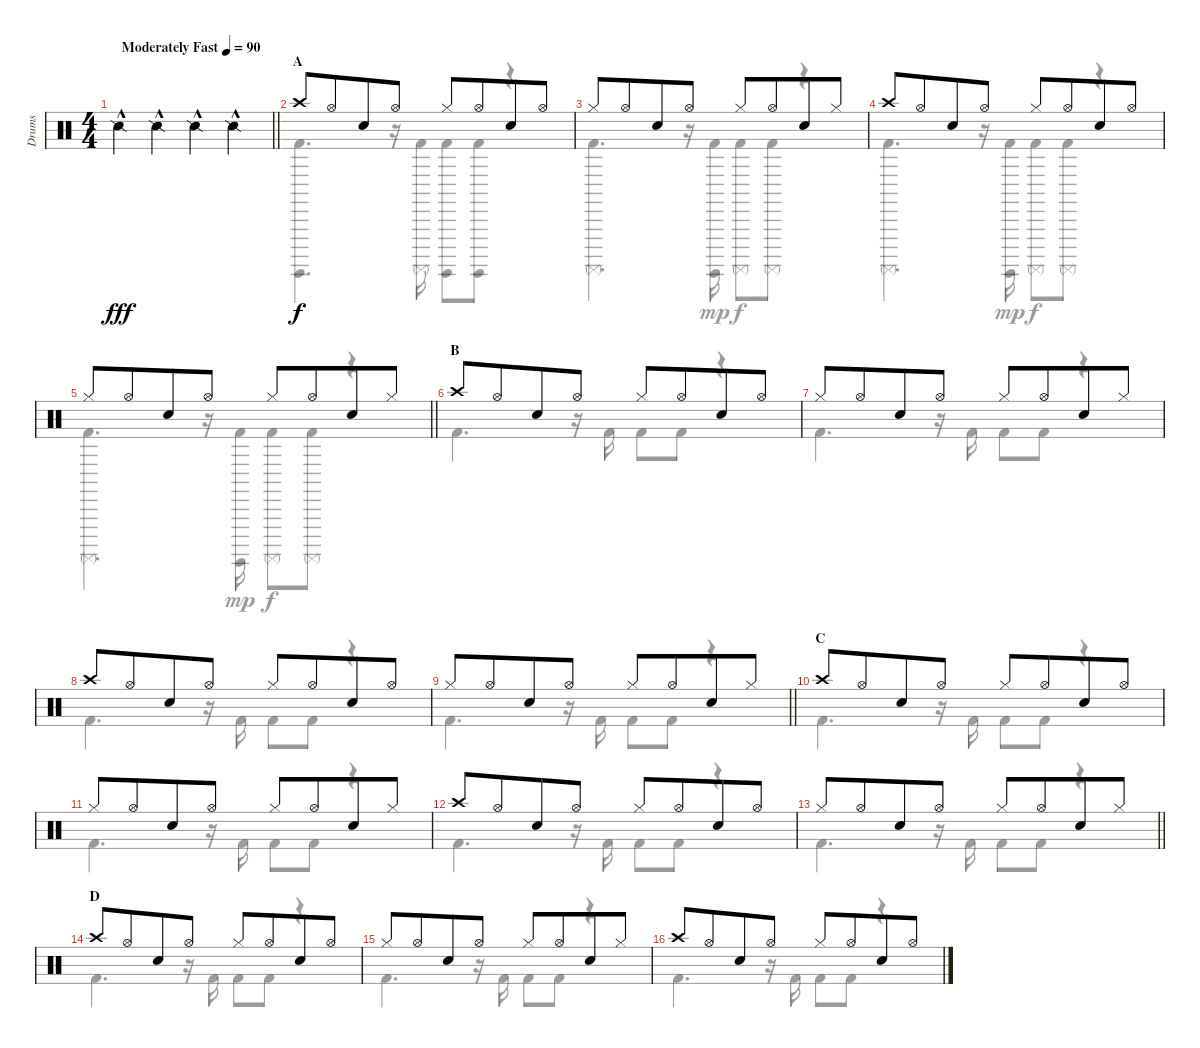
\track ("Drums" "Drums") {instrument percussion}
\staff {score}
\articulation defaults
\voice
\ts (4 4)
\tempo (90 "Moderately Fast")
\clef neutral
\barLineRight lightlight
\ks c "Snare (side stick) 2"{hac}.4{dy fff} "Snare (side stick) 2"{hac}.4 "Snare (side stick) 2"{hac}.4 "Snare (side stick) 2"{hac}.4
|
\section ("" "A")
"Crash high (hit)".8{dy f} "Hi-Hat (open)".8{beam merge} "Snare (hit) 2".8 "Hi-Hat (open)".8 "Hi-Hat (closed)".8 "Hi-Hat (open)".8{beam merge} "Snare (hit) 2".8 "Hi-Hat (open)".8 |
"Hi-Hat (closed)".8 "Hi-Hat (open)".8{beam merge} "Snare (hit) 2".8 "Hi-Hat (open)".8 "Hi-Hat (closed)".8 "Hi-Hat (open)".8{beam merge} "Snare (hit) 2".8 "Hi-Hat (closed)".8 |
"Crash high (hit)".8 "Hi-Hat (open)".8{beam merge} "Snare (hit) 2".8 "Hi-Hat (open)".8 "Hi-Hat (closed)".8 "Hi-Hat (open)".8{beam merge} "Snare (hit) 2".8 "Hi-Hat (open)".8 |
\barLineRight lightlight "Hi-Hat (closed)".8 "Hi-Hat (open)".8{beam merge} "Snare (hit) 2".8 "Hi-Hat (open)".8 "Hi-Hat (closed)".8 "Hi-Hat (open)".8{beam merge} "Snare (hit) 2".8 "Hi-Hat (closed)".8
|
\section ("" "B")
"Crash high (hit)".8 "Hi-Hat (open)".8{beam merge} "Snare (hit) 2".8 "Hi-Hat (open)".8 "Hi-Hat (closed)".8 "Hi-Hat (open)".8{beam merge} "Snare (hit) 2".8 "Hi-Hat (open)".8 |
"Hi-Hat (closed)".8 "Hi-Hat (open)".8{beam merge} "Snare (hit) 2".8 "Hi-Hat (open)".8 "Hi-Hat (closed)".8 "Hi-Hat (open)".8{beam merge} "Snare (hit) 2".8 "Hi-Hat (closed)".8 |
"Crash high (hit)".8 "Hi-Hat (open)".8{beam merge} "Snare (hit) 2".8 "Hi-Hat (open)".8 "Hi-Hat (closed)".8 "Hi-Hat (open)".8{beam merge} "Snare (hit) 2".8 "Hi-Hat (open)".8 |
\barLineRight lightlight "Hi-Hat (closed)".8 "Hi-Hat (open)".8{beam merge} "Snare (hit) 2".8 "Hi-Hat (open)".8 "Hi-Hat (closed)".8 "Hi-Hat (open)".8{beam merge} "Snare (hit) 2".8 "Hi-Hat (closed)".8
|
\section ("" "C")
"Crash high (hit)".8 "Hi-Hat (open)".8{beam merge} "Snare (hit) 2".8 "Hi-Hat (open)".8 "Hi-Hat (closed)".8 "Hi-Hat (open)".8{beam merge} "Snare (hit) 2".8 "Hi-Hat (open)".8 |
"Hi-Hat (closed)".8 "Hi-Hat (open)".8{beam merge} "Snare (hit) 2".8 "Hi-Hat (open)".8 "Hi-Hat (closed)".8 "Hi-Hat (open)".8{beam merge} "Snare (hit) 2".8 "Hi-Hat (closed)".8 |
"Crash high (hit)".8 "Hi-Hat (open)".8{beam merge} "Snare (hit) 2".8 "Hi-Hat (open)".8 "Hi-Hat (closed)".8 "Hi-Hat (open)".8{beam merge} "Snare (hit) 2".8 "Hi-Hat (open)".8 |
\barLineRight lightlight "Hi-Hat (closed)".8 "Hi-Hat (open)".8{beam merge} "Snare (hit) 2".8 "Hi-Hat (open)".8 "Hi-Hat (closed)".8 "Hi-Hat (open)".8{beam merge} "Snare (hit) 2".8 "Hi-Hat (closed)".8
|
\section ("" "D")
"Crash high (hit)".8 "Hi-Hat (open)".8{beam merge} "Snare (hit) 2".8 "Hi-Hat (open)".8 "Hi-Hat (closed)".8 "Hi-Hat (open)".8{beam merge} "Snare (hit) 2".8 "Hi-Hat (open)".8 |
"Hi-Hat (closed)".8 "Hi-Hat (open)".8{beam merge} "Snare (hit) 2".8 "Hi-Hat (open)".8 "Hi-Hat (closed)".8 "Hi-Hat (open)".8{beam merge} "Snare (hit) 2".8 "Hi-Hat (closed)".8 |
"Crash high (hit)".8 "Hi-Hat (open)".8{beam merge} "Snare (hit) 2".8 "Hi-Hat (open)".8 "Hi-Hat (closed)".8 "Hi-Hat (open)".8{beam merge} "Snare (hit) 2".8 "Hi-Hat (open)".8
\voice
\clef neutral
\ottava regular
\simile none
\barLineRight lightlight
\ks c
|
("Kick (hit) 2" "Surdo (hit)").4{d} r.16 ("Kick (hit) 2" "Surdo (mute)").16 ("Kick (hit) 2" "Surdo (hit)").8 ("Kick (hit) 2" "Surdo (hit)").8 r.4 |
("Kick (hit) 2" "Surdo (mute)").4{d} r.16 ("Kick (hit) 2" "Surdo (hit)").16{dy mp} ("Kick (hit) 2" "Surdo (mute)").8{dy f} ("Kick (hit) 2" "Surdo (mute)").8 r.4 |
("Kick (hit) 2" "Surdo (mute)").4{d} r.16 ("Kick (hit) 2" "Surdo (hit)").16{dy mp} ("Kick (hit) 2" "Surdo (mute)").8{dy f} ("Kick (hit) 2" "Surdo (mute)").8 r.4 |
\barLineRight lightlight
("Kick (hit) 2" "Surdo (mute)").4{d} r.16 ("Kick (hit) 2" "Surdo (hit)").16{dy mp} ("Kick (hit) 2" "Surdo (mute)").8{dy f} ("Kick (hit) 2" "Surdo (mute)").8 r.4 |
"Kick (hit) 2".4{d} r.16 "Kick (hit) 2".16 "Kick (hit) 2".8 "Kick (hit) 2".8 r.4 |
"Kick (hit) 2".4{d} r.16 "Kick (hit) 2".16 "Kick (hit) 2".8 "Kick (hit) 2".8 r.4 |
"Kick (hit) 2".4{d} r.16 "Kick (hit) 2".16 "Kick (hit) 2".8 "Kick (hit) 2".8 r.4 |
\barLineRight lightlight "Kick (hit) 2".4{d}
r.16 "Kick (hit) 2".16 "Kick (hit) 2".8 "Kick (hit) 2".8 r.4 |
"Kick (hit) 2".4{d} r.16 "Kick (hit) 2".16 "Kick (hit) 2".8 "Kick (hit) 2".8 r.4 |
"Kick (hit) 2".4{d} r.16 "Kick (hit) 2".16 "Kick (hit) 2".8 "Kick (hit) 2".8 r.4 |
"Kick (hit) 2".4{d} r.16 "Kick (hit) 2".16 "Kick (hit) 2".8 "Kick (hit) 2".8 r.4 |
\barLineRight lightlight "Kick (hit) 2".4{d}
r.16 "Kick (hit) 2".16 "Kick (hit) 2".8 "Kick (hit) 2".8 r.4 |
"Kick (hit) 2".4{d} r.16 "Kick (hit) 2".16 "Kick (hit) 2".8 "Kick (hit) 2".8 r.4 |
"Kick (hit) 2".4{d} r.16 "Kick (hit) 2".16 "Kick (hit) 2".8 "Kick (hit) 2".8 r.4 |
"Kick (hit) 2".4{d} r.16 "Kick (hit) 2".16 "Kick (hit) 2".8 "Kick (hit) 2".8 r.4
